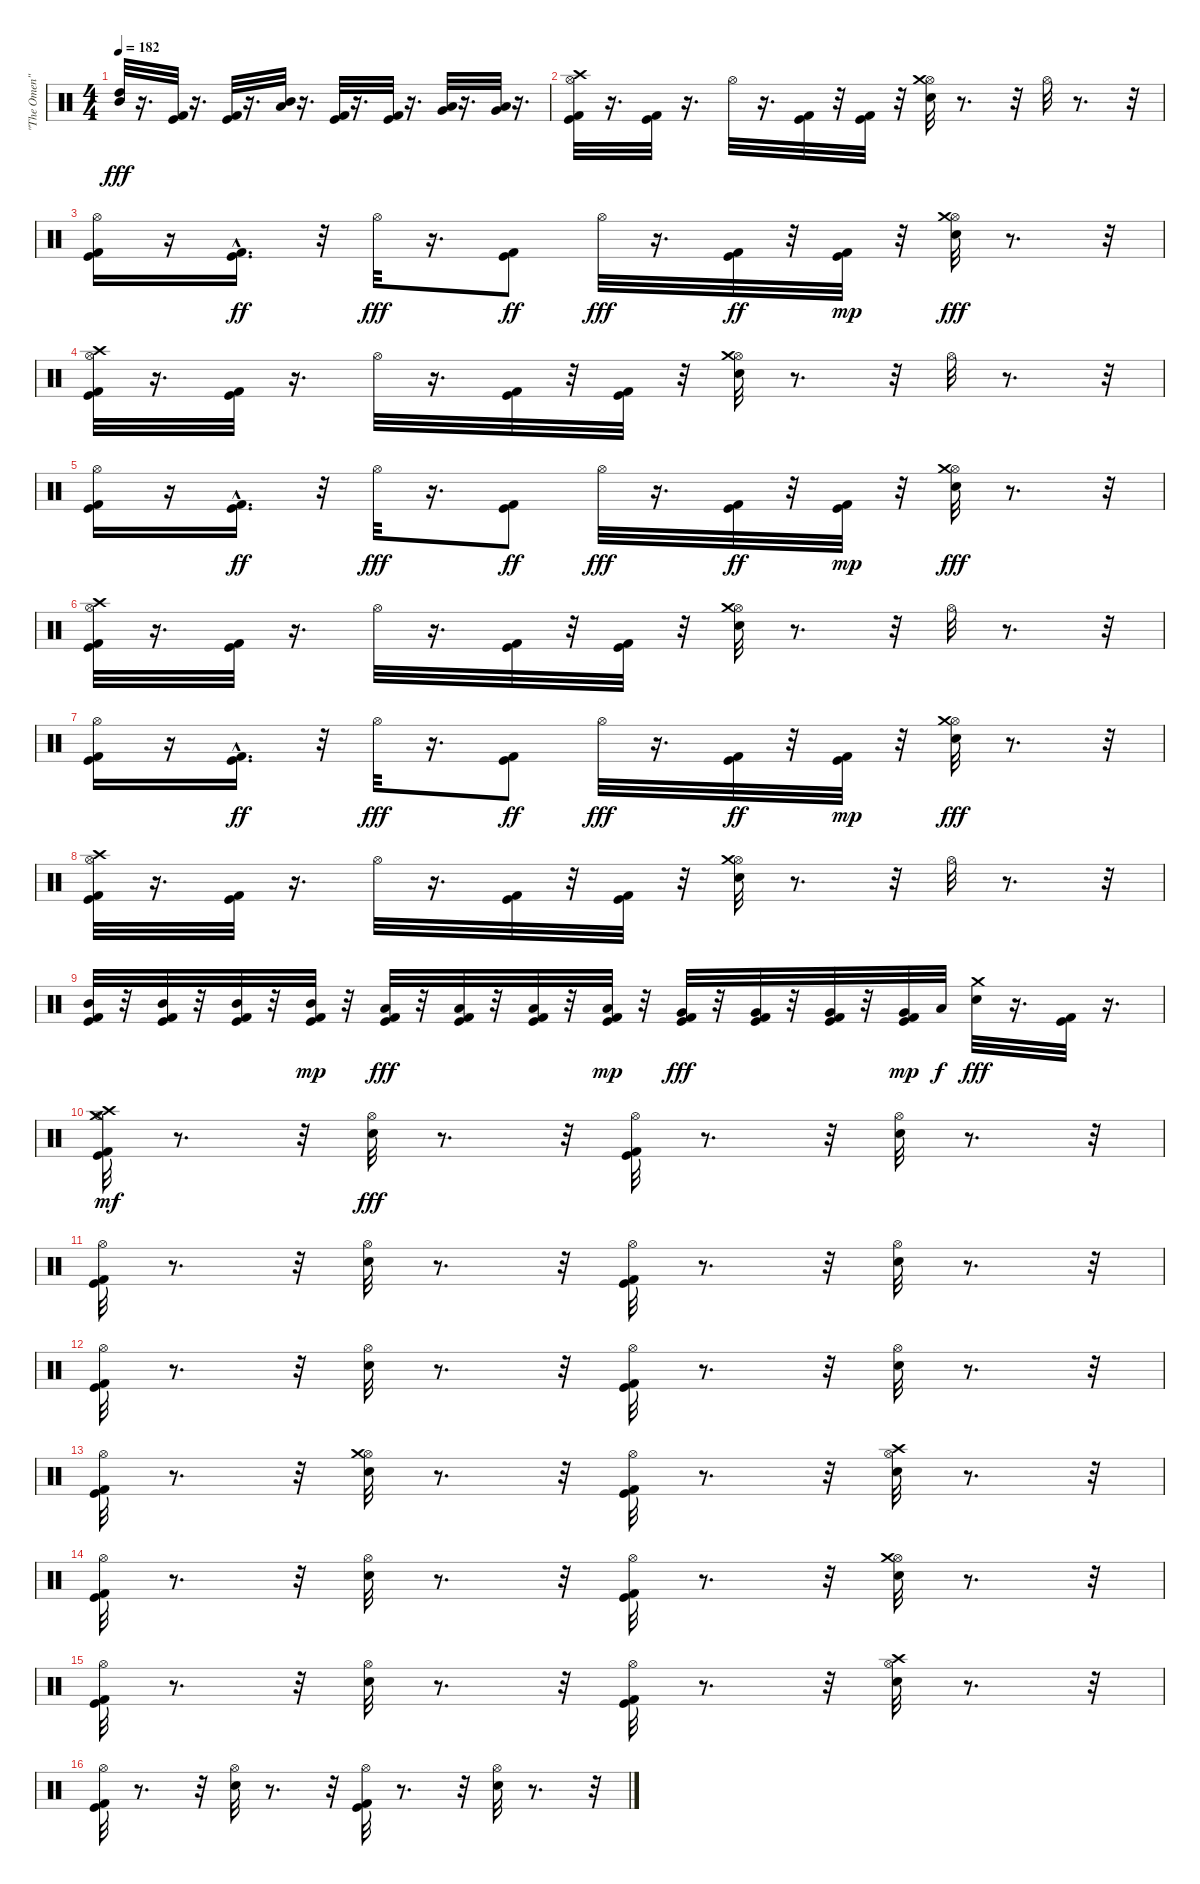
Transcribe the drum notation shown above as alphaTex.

\track ("\"The Omen\"" "\"The Omen\"") {instrument percussion}
\staff {score}
\articulation defaults
\ts (4 4)
\tempo 182
\clef neutral
\ks c
("Mid Tom (hit)" "High Tom (hit)").32{dy fff} r.16{d} ("Kick (hit)" "Kick (hit) 2").32 r.16{d} ("Kick (hit)" "Kick (hit) 2").32 r.16{d} ("Low Tom (hit)" "Mid Tom (hit)").32 r.16{d} ("Kick (hit)" "Kick (hit) 2").32 r.16{d} ("Kick (hit)" "Kick (hit) 2").32 r.16{d} ("Very Low Tom (hit)" "Low Tom (hit)").32 r.16{d} ("Low Floor Tom (hit)" "Very Low Tom (hit)").32 r.16{d} |
("Kick (hit)" "Kick (hit) 2" "Hi-Hat (open)" "Crash high (hit)").32 r.16{d} ("Kick (hit)" "Kick (hit) 2").32 r.16{d} "Hi-Hat (open)".32 r.16{d} ("Kick (hit)" "Kick (hit) 2").32 r.32 ("Kick (hit)" "Kick (hit) 2").32 r.32 ("Snare (hit) 2" "Hi-Hat (open)" "Crash medium (hit)").32 r.8{d} r.32 "Hi-Hat (open)".32 r.8{d} r.32 |
("Kick (hit)" "Kick (hit) 2" "Hi-Hat (open)").16 r.16 ("Kick (hit)" "Kick (hit) 2"{hac}).16{d dy ff} r.32 "Hi-Hat (open)".32{dy fff} r.16{d} ("Kick (hit)" "Kick (hit) 2").8{dy ff} "Hi-Hat (open)".32{dy fff} r.16{d} ("Kick (hit)" "Kick (hit) 2").32{dy ff} r.32 ("Kick (hit)" "Kick (hit) 2").32{dy mp} r.32 ("Snare (hit) 2" "Hi-Hat (open)" "Crash medium (hit)").32{dy fff} r.8{d} r.32 |
("Kick (hit)" "Kick (hit) 2" "Hi-Hat (open)" "Crash high (hit)").32 r.16{d} ("Kick (hit)" "Kick (hit) 2").32 r.16{d} "Hi-Hat (open)".32 r.16{d} ("Kick (hit)" "Kick (hit) 2").32 r.32 ("Kick (hit)" "Kick (hit) 2").32 r.32 ("Snare (hit) 2" "Hi-Hat (open)" "Crash medium (hit)").32 r.8{d} r.32 "Hi-Hat (open)".32 r.8{d} r.32 |
("Kick (hit)" "Kick (hit) 2" "Hi-Hat (open)").16 r.16 ("Kick (hit)" "Kick (hit) 2"{hac}).16{d dy ff} r.32 "Hi-Hat (open)".32{dy fff} r.16{d} ("Kick (hit)" "Kick (hit) 2").8{dy ff} "Hi-Hat (open)".32{dy fff} r.16{d} ("Kick (hit)" "Kick (hit) 2").32{dy ff} r.32 ("Kick (hit)" "Kick (hit) 2").32{dy mp} r.32 ("Snare (hit) 2" "Hi-Hat (open)" "Crash medium (hit)").32{dy fff} r.8{d} r.32 |
("Kick (hit)" "Kick (hit) 2" "Hi-Hat (open)" "Crash high (hit)").32 r.16{d} ("Kick (hit)" "Kick (hit) 2").32 r.16{d} "Hi-Hat (open)".32 r.16{d} ("Kick (hit)" "Kick (hit) 2").32 r.32 ("Kick (hit)" "Kick (hit) 2").32 r.32 ("Snare (hit) 2" "Hi-Hat (open)" "Crash medium (hit)").32 r.8{d} r.32 "Hi-Hat (open)".32 r.8{d} r.32 |
("Kick (hit)" "Kick (hit) 2" "Hi-Hat (open)").16 r.16 ("Kick (hit)" "Kick (hit) 2"{hac}).16{d dy ff} r.32 "Hi-Hat (open)".32{dy fff} r.16{d} ("Kick (hit)" "Kick (hit) 2").8{dy ff} "Hi-Hat (open)".32{dy fff} r.16{d} ("Kick (hit)" "Kick (hit) 2").32{dy ff} r.32 ("Kick (hit)" "Kick (hit) 2").32{dy mp} r.32 ("Snare (hit) 2" "Hi-Hat (open)" "Crash medium (hit)").32{dy fff} r.8{d} r.32 |
("Kick (hit)" "Kick (hit) 2" "Hi-Hat (open)" "Crash high (hit)").32 r.16{d} ("Kick (hit)" "Kick (hit) 2").32 r.16{d} "Hi-Hat (open)".32 r.16{d} ("Kick (hit)" "Kick (hit) 2").32 r.32 ("Kick (hit)" "Kick (hit) 2").32 r.32 ("Snare (hit) 2" "Hi-Hat (open)" "Crash medium (hit)").32 r.8{d} r.32 "Hi-Hat (open)".32 r.8{d} r.32 |
("Kick (hit)" "Kick (hit) 2" "Mid Tom (hit)").32 r.32 ("Kick (hit)" "Kick (hit) 2" "Mid Tom (hit)").32 r.32 ("Kick (hit)" "Kick (hit) 2" "Mid Tom (hit)").32 r.32 ("Kick (hit)" "Kick (hit) 2" "Mid Tom (hit)").32{dy mp} r.32 ("Kick (hit)" "Kick (hit) 2" "Low Tom (hit)").32{dy fff} r.32 ("Kick (hit)" "Kick (hit) 2" "Low Tom (hit)").32 r.32 ("Kick (hit)" "Kick (hit) 2" "Low Tom (hit)").32 r.32 ("Kick (hit)" "Kick (hit) 2" "Low Tom (hit)").32{dy mp} r.32 ("Kick (hit)" "Kick (hit) 2" "Very Low Tom (hit)").32{dy fff} r.32 ("Kick (hit)" "Kick (hit) 2" "Very Low Tom (hit)").32 r.32 ("Kick (hit)" "Kick (hit) 2" "Very Low Tom (hit)").32 r.32 ("Kick (hit)" "Kick (hit) 2" "Very Low Tom (hit)").32{dy mp} "Low Floor Tom (hit)".32{dy f} ("Snare (hit) 2" "Crash medium (hit)").32{dy fff} r.16{d} ("Kick (hit)" "Kick (hit) 2").32 r.16{d} |
("Kick (hit)" "Kick (hit) 2" "Hi-Hat (open)" "Crash high (hit)" "Crash medium (hit)").32{dy mf} r.8{d} r.32 ("Snare (hit) 2" "Hi-Hat (open)").32{dy fff} r.8{d} r.32 ("Kick (hit)" "Kick (hit) 2" "Hi-Hat (open)").32 r.8{d} r.32 ("Snare (hit) 2" "Hi-Hat (open)").32 r.8{d} r.32 |
("Kick (hit)" "Kick (hit) 2" "Hi-Hat (open)").32 r.8{d} r.32 ("Snare (hit) 2" "Hi-Hat (open)").32 r.8{d} r.32 ("Kick (hit)" "Kick (hit) 2" "Hi-Hat (open)").32 r.8{d} r.32 ("Snare (hit) 2" "Hi-Hat (open)").32 r.8{d} r.32 |
("Kick (hit)" "Kick (hit) 2" "Hi-Hat (open)").32 r.8{d} r.32 ("Snare (hit) 2" "Hi-Hat (open)").32 r.8{d} r.32 ("Kick (hit)" "Kick (hit) 2" "Hi-Hat (open)").32 r.8{d} r.32 ("Snare (hit) 2" "Hi-Hat (open)").32 r.8{d} r.32 |
("Kick (hit)" "Kick (hit) 2" "Hi-Hat (open)").32 r.8{d} r.32 ("Snare (hit) 2" "Hi-Hat (open)" "Crash medium (hit)").32 r.8{d} r.32 ("Kick (hit)" "Kick (hit) 2" "Hi-Hat (open)").32 r.8{d} r.32 ("Snare (hit) 2" "Hi-Hat (open)" "Crash high (hit)").32 r.8{d} r.32 |
("Kick (hit)" "Kick (hit) 2" "Hi-Hat (open)").32 r.8{d} r.32 ("Snare (hit) 2" "Hi-Hat (open)").32 r.8{d} r.32 ("Kick (hit)" "Kick (hit) 2" "Hi-Hat (open)").32 r.8{d} r.32 ("Snare (hit) 2" "Hi-Hat (open)" "Crash medium (hit)").32 r.8{d} r.32 |
("Kick (hit)" "Kick (hit) 2" "Hi-Hat (open)").32 r.8{d} r.32 ("Snare (hit) 2" "Hi-Hat (open)").32 r.8{d} r.32 ("Kick (hit)" "Kick (hit) 2" "Hi-Hat (open)").32 r.8{d} r.32 ("Snare (hit) 2" "Hi-Hat (open)" "Crash high (hit)").32 r.8{d} r.32 |
("Kick (hit)" "Kick (hit) 2" "Hi-Hat (open)").32 r.8{d} r.32 ("Snare (hit) 2" "Hi-Hat (open)").32 r.8{d} r.32 ("Kick (hit)" "Kick (hit) 2" "Hi-Hat (open)").32 r.8{d} r.32 ("Snare (hit) 2" "Hi-Hat (open)").32 r.8{d} r.32
